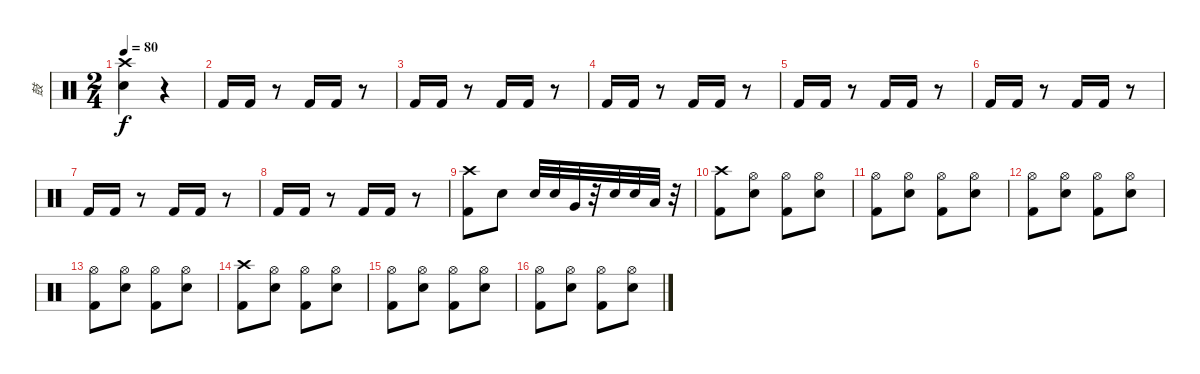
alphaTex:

\track ("鼓" "鼓") {instrument percussion}
\staff {score}
\articulation defaults
\ts (2 4)
\tempo 80
\clef neutral
\ks c
("Crash high (hit)" "Electric Snare (hit)").4{dy f} r.4 |
"Kick (hit) 2".16 "Kick (hit) 2".16 r.8 "Kick (hit) 2".16 "Kick (hit) 2".16 r.8 |
"Kick (hit) 2".16 "Kick (hit) 2".16 r.8 "Kick (hit) 2".16 "Kick (hit) 2".16 r.8 |
"Kick (hit) 2".16 "Kick (hit) 2".16 r.8 "Kick (hit) 2".16 "Kick (hit) 2".16 r.8 |
"Kick (hit) 2".16 "Kick (hit) 2".16 r.8 "Kick (hit) 2".16 "Kick (hit) 2".16 r.8 |
"Kick (hit) 2".16 "Kick (hit) 2".16 r.8 "Kick (hit) 2".16 "Kick (hit) 2".16 r.8 |
"Kick (hit) 2".16 "Kick (hit) 2".16 r.8 "Kick (hit) 2".16 "Kick (hit) 2".16 r.8 |
"Kick (hit) 2".16 "Kick (hit) 2".16 r.8 "Kick (hit) 2".16 "Kick (hit) 2".16 r.8 |
("Crash high (hit)" "Kick (hit) 2").8 "Electric Snare (hit)".8 "Electric Snare (hit)".32 "Electric Snare (hit)".32 "Very Low Tom (hit)".32 r.32 "Electric Snare (hit)".32 "Electric Snare (hit)".32 "Low Floor Tom (hit)".32 r.32 |
("Crash high (hit)" "Kick (hit) 2").8 ("Hi-Hat (open)" "Electric Snare (hit)").8 ("Hi-Hat (open)" "Kick (hit) 2").8 ("Hi-Hat (open)" "Electric Snare (hit)").8 |
("Hi-Hat (open)" "Kick (hit) 2").8 ("Hi-Hat (open)" "Electric Snare (hit)").8 ("Hi-Hat (open)" "Kick (hit) 2").8 ("Hi-Hat (open)" "Electric Snare (hit)").8 |
("Hi-Hat (open)" "Kick (hit) 2").8 ("Hi-Hat (open)" "Electric Snare (hit)").8 ("Hi-Hat (open)" "Kick (hit) 2").8 ("Hi-Hat (open)" "Electric Snare (hit)").8 |
("Hi-Hat (open)" "Kick (hit) 2").8 ("Hi-Hat (open)" "Electric Snare (hit)").8 ("Hi-Hat (open)" "Kick (hit) 2").8 ("Hi-Hat (open)" "Electric Snare (hit)").8 |
("Crash high (hit)" "Kick (hit) 2").8 ("Hi-Hat (open)" "Electric Snare (hit)").8 ("Hi-Hat (open)" "Kick (hit) 2").8 ("Hi-Hat (open)" "Electric Snare (hit)").8 |
("Hi-Hat (open)" "Kick (hit) 2").8 ("Hi-Hat (open)" "Electric Snare (hit)").8 ("Hi-Hat (open)" "Kick (hit) 2").8 ("Hi-Hat (open)" "Electric Snare (hit)").8 |
("Hi-Hat (open)" "Kick (hit) 2").8 ("Hi-Hat (open)" "Electric Snare (hit)").8 ("Hi-Hat (open)" "Kick (hit) 2").8 ("Hi-Hat (open)" "Electric Snare (hit)").8
